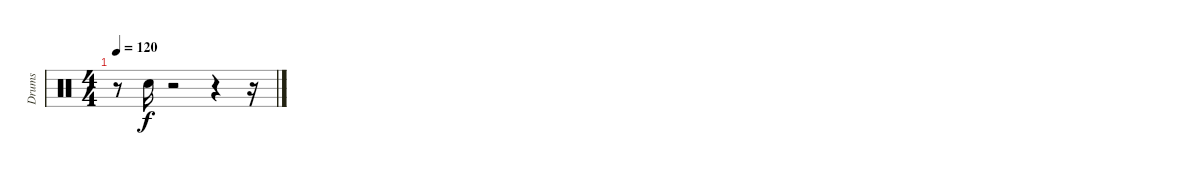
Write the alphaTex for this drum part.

\track ("Drums" "Drums") {instrument percussion}
\staff {score}
\articulation defaults
\ts (4 4)
\tempo 120
\clef neutral
\ks c
r.8{dy f} "Hand Clap (hit)".16 r.2 r.4 r.16
